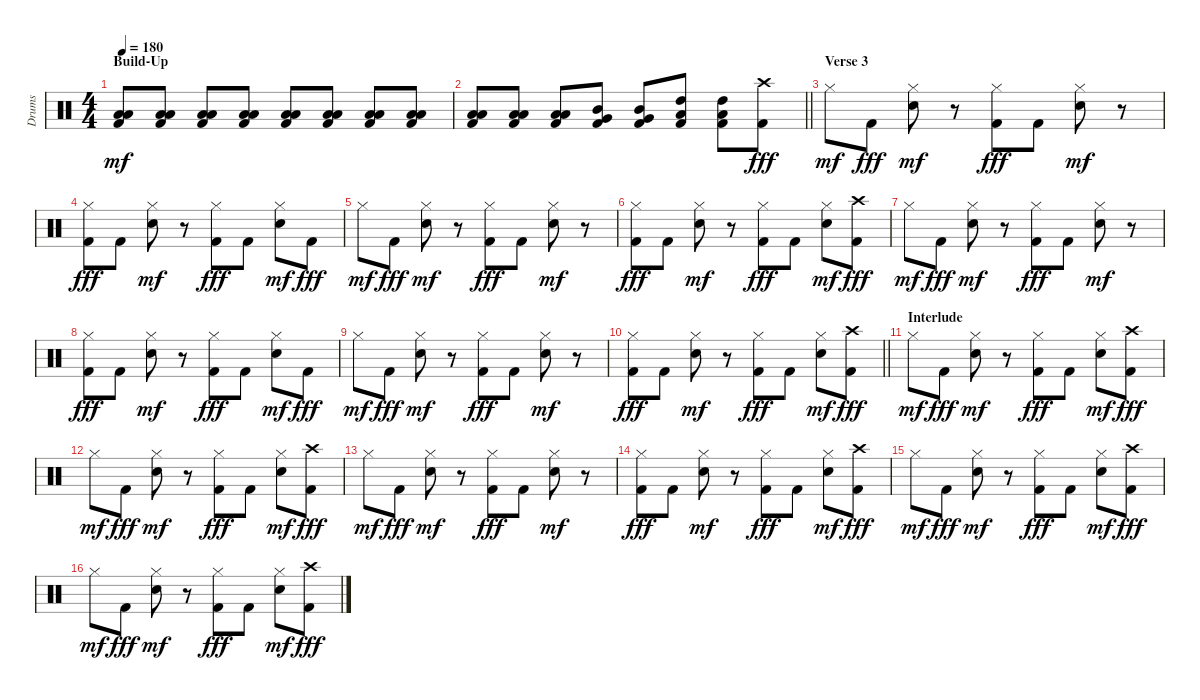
\track ("Drums" "Drums") {instrument percussion}
\staff {score}
\articulation defaults
\ts (4 4)
\section ("" "Build-Up")
\tempo 180
\clef neutral
\ks c
("Kick (hit) 2" "Low Floor Tom (hit)" "Low Tom (hit)").8{dy mf} ("Kick (hit) 2" "Low Floor Tom (hit)" "Low Tom (hit)").8 ("Kick (hit) 2" "Low Floor Tom (hit)" "Low Tom (hit)").8 ("Kick (hit) 2" "Low Floor Tom (hit)" "Low Tom (hit)").8 ("Kick (hit) 2" "Low Floor Tom (hit)" "Low Tom (hit)").8 ("Kick (hit) 2" "Low Floor Tom (hit)" "Low Tom (hit)").8 ("Kick (hit) 2" "Low Floor Tom (hit)" "Low Tom (hit)").8 ("Kick (hit) 2" "Low Floor Tom (hit)" "Low Tom (hit)").8 |
\barLineRight lightlight
("Kick (hit) 2" "Low Floor Tom (hit)" "Low Tom (hit)").8 ("Kick (hit) 2" "Low Floor Tom (hit)" "Low Tom (hit)").8 ("Kick (hit) 2" "Low Floor Tom (hit)" "Low Tom (hit)").8 ("Kick (hit) 2" "Very Low Tom (hit)" "Mid Tom (hit)").8 ("Kick (hit) 2" "Very Low Tom (hit)" "Mid Tom (hit)").8 ("Kick (hit) 2" "Low Tom (hit)" "High Tom (hit)").8 ("Kick (hit) 2" "Low Tom (hit)" "High Tom (hit)").8 ("Crash high (hit)" "Kick (hit) 2").8{dy fff} |
\section ("" "Verse 3")
"Hi-Hat (closed)".8{dy mf} "Kick (hit) 2".8{dy fff} ("Hi-Hat (closed)" "Electric Snare (hit)").8{dy mf} r.8 ("Hi-Hat (closed)" "Kick (hit) 2").8{dy fff} "Kick (hit) 2".8 ("Hi-Hat (closed)" "Electric Snare (hit)").8{dy mf} r.8 |
("Hi-Hat (closed)" "Kick (hit) 2").8{dy fff} "Kick (hit) 2".8 ("Hi-Hat (closed)" "Electric Snare (hit)").8{dy mf} r.8 ("Hi-Hat (closed)" "Kick (hit) 2").8{dy fff} "Kick (hit) 2".8 ("Hi-Hat (closed)" "Electric Snare (hit)").8{dy mf} "Kick (hit) 2".8{dy fff} |
"Hi-Hat (closed)".8{dy mf} "Kick (hit) 2".8{dy fff} ("Hi-Hat (closed)" "Electric Snare (hit)").8{dy mf} r.8 ("Hi-Hat (closed)" "Kick (hit) 2").8{dy fff} "Kick (hit) 2".8 ("Hi-Hat (closed)" "Electric Snare (hit)").8{dy mf} r.8 |
("Hi-Hat (closed)" "Kick (hit) 2").8{dy fff} "Kick (hit) 2".8 ("Hi-Hat (closed)" "Electric Snare (hit)").8{dy mf} r.8 ("Hi-Hat (closed)" "Kick (hit) 2").8{dy fff} "Kick (hit) 2".8 ("Hi-Hat (closed)" "Electric Snare (hit)").8{dy mf} ("Crash high (hit)" "Kick (hit) 2").8{dy fff} |
"Hi-Hat (closed)".8{dy mf} "Kick (hit) 2".8{dy fff} ("Hi-Hat (closed)" "Electric Snare (hit)").8{dy mf} r.8 ("Hi-Hat (closed)" "Kick (hit) 2").8{dy fff} "Kick (hit) 2".8 ("Hi-Hat (closed)" "Electric Snare (hit)").8{dy mf} r.8 |
("Hi-Hat (closed)" "Kick (hit) 2").8{dy fff} "Kick (hit) 2".8 ("Hi-Hat (closed)" "Electric Snare (hit)").8{dy mf} r.8 ("Hi-Hat (closed)" "Kick (hit) 2").8{dy fff} "Kick (hit) 2".8 ("Hi-Hat (closed)" "Electric Snare (hit)").8{dy mf} "Kick (hit) 2".8{dy fff} |
"Hi-Hat (closed)".8{dy mf} "Kick (hit) 2".8{dy fff} ("Hi-Hat (closed)" "Electric Snare (hit)").8{dy mf} r.8 ("Hi-Hat (closed)" "Kick (hit) 2").8{dy fff} "Kick (hit) 2".8 ("Hi-Hat (closed)" "Electric Snare (hit)").8{dy mf} r.8 |
\barLineRight lightlight
("Hi-Hat (closed)" "Kick (hit) 2").8{dy fff} "Kick (hit) 2".8 ("Hi-Hat (closed)" "Electric Snare (hit)").8{dy mf} r.8 ("Hi-Hat (closed)" "Kick (hit) 2").8{dy fff} "Kick (hit) 2".8 ("Hi-Hat (closed)" "Electric Snare (hit)").8{dy mf} ("Crash high (hit)" "Kick (hit) 2").8{dy fff} |
\section ("" "Interlude")
"Hi-Hat (closed)".8{dy mf} "Kick (hit) 2".8{dy fff} ("Hi-Hat (closed)" "Electric Snare (hit)").8{dy mf} r.8 ("Hi-Hat (closed)" "Kick (hit) 2").8{dy fff} "Kick (hit) 2".8 ("Hi-Hat (closed)" "Electric Snare (hit)").8{dy mf} ("Crash high (hit)" "Kick (hit) 2").8{dy fff} |
"Hi-Hat (closed)".8{dy mf} "Kick (hit) 2".8{dy fff} ("Hi-Hat (closed)" "Electric Snare (hit)").8{dy mf} r.8 ("Hi-Hat (closed)" "Kick (hit) 2").8{dy fff} "Kick (hit) 2".8 ("Hi-Hat (closed)" "Electric Snare (hit)").8{dy mf} ("Crash high (hit)" "Kick (hit) 2").8{dy fff} |
"Hi-Hat (closed)".8{dy mf} "Kick (hit) 2".8{dy fff} ("Hi-Hat (closed)" "Electric Snare (hit)").8{dy mf} r.8 ("Hi-Hat (closed)" "Kick (hit) 2").8{dy fff} "Kick (hit) 2".8 ("Hi-Hat (closed)" "Electric Snare (hit)").8{dy mf} r.8 |
("Hi-Hat (closed)" "Kick (hit) 2").8{dy fff} "Kick (hit) 2".8 ("Hi-Hat (closed)" "Electric Snare (hit)").8{dy mf} r.8 ("Hi-Hat (closed)" "Kick (hit) 2").8{dy fff} "Kick (hit) 2".8 ("Hi-Hat (closed)" "Electric Snare (hit)").8{dy mf} ("Crash high (hit)" "Kick (hit) 2").8{dy fff} |
"Hi-Hat (closed)".8{dy mf} "Kick (hit) 2".8{dy fff} ("Hi-Hat (closed)" "Electric Snare (hit)").8{dy mf} r.8 ("Hi-Hat (closed)" "Kick (hit) 2").8{dy fff} "Kick (hit) 2".8 ("Hi-Hat (closed)" "Electric Snare (hit)").8{dy mf} ("Crash high (hit)" "Kick (hit) 2").8{dy fff} |
"Hi-Hat (closed)".8{dy mf} "Kick (hit) 2".8{dy fff} ("Hi-Hat (closed)" "Electric Snare (hit)").8{dy mf} r.8 ("Hi-Hat (closed)" "Kick (hit) 2").8{dy fff} "Kick (hit) 2".8 ("Hi-Hat (closed)" "Electric Snare (hit)").8{dy mf} ("Crash high (hit)" "Kick (hit) 2").8{dy fff}
